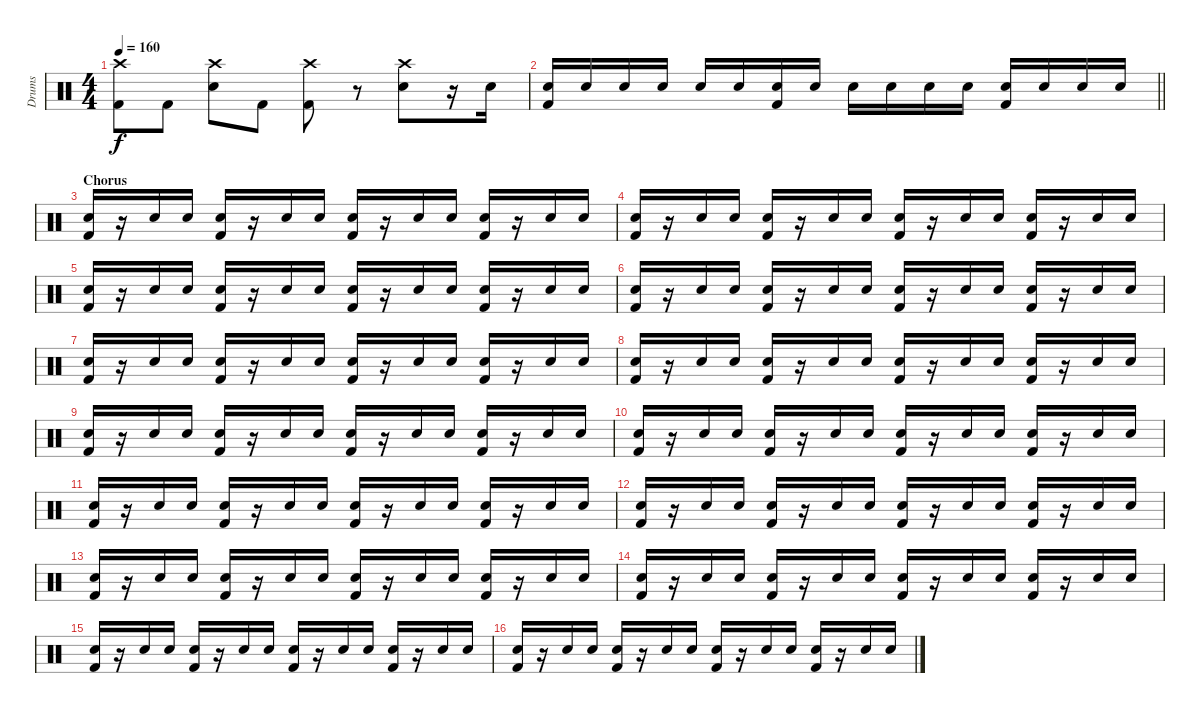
\track ("Drums" "Drums") {instrument percussion}
\staff {score}
\articulation defaults
\ts (4 4)
\tempo 160
\clef neutral
\ks c
("Crash high (hit)" "Kick (hit) 2").8{dy f} "Kick (hit) 2".8 ("Crash high (hit)" "Snare (hit) 2").8 "Kick (hit) 2".8 ("Crash high (hit)" "Kick (hit) 2").8 r.8 ("Crash high (hit)" "Snare (hit) 2").8 r.16 "Snare (hit) 2".16 |
\barLineRight lightlight
("Snare (hit) 2" "Kick (hit) 2").16 "Snare (hit) 2".16 "Snare (hit) 2".16 "Snare (hit) 2".16 "Snare (hit) 2".16 "Snare (hit) 2".16 ("Snare (hit) 2" "Kick (hit) 2").16 "Snare (hit) 2".16 "Snare (hit) 2".16 "Snare (hit) 2".16 "Snare (hit) 2".16 "Snare (hit) 2".16 ("Snare (hit) 2" "Kick (hit) 2").16 "Snare (hit) 2".16 "Snare (hit) 2".16 "Snare (hit) 2".16 |
\section ("" "Chorus")
("Snare (hit) 2" "Kick (hit) 2").16 r.16 "Snare (hit) 2".16 "Snare (hit) 2".16 ("Snare (hit) 2" "Kick (hit) 2").16 r.16 "Snare (hit) 2".16 "Snare (hit) 2".16 ("Snare (hit) 2" "Kick (hit) 2").16 r.16 "Snare (hit) 2".16 "Snare (hit) 2".16 ("Snare (hit) 2" "Kick (hit) 2").16 r.16 "Snare (hit) 2".16 "Snare (hit) 2".16 |
("Snare (hit) 2" "Kick (hit) 2").16 r.16 "Snare (hit) 2".16 "Snare (hit) 2".16 ("Snare (hit) 2" "Kick (hit) 2").16 r.16 "Snare (hit) 2".16 "Snare (hit) 2".16 ("Snare (hit) 2" "Kick (hit) 2").16 r.16 "Snare (hit) 2".16 "Snare (hit) 2".16 ("Snare (hit) 2" "Kick (hit) 2").16 r.16 "Snare (hit) 2".16 "Snare (hit) 2".16 |
("Snare (hit) 2" "Kick (hit) 2").16 r.16 "Snare (hit) 2".16 "Snare (hit) 2".16 ("Snare (hit) 2" "Kick (hit) 2").16 r.16 "Snare (hit) 2".16 "Snare (hit) 2".16 ("Snare (hit) 2" "Kick (hit) 2").16 r.16 "Snare (hit) 2".16 "Snare (hit) 2".16 ("Snare (hit) 2" "Kick (hit) 2").16 r.16 "Snare (hit) 2".16 "Snare (hit) 2".16 |
("Snare (hit) 2" "Kick (hit) 2").16 r.16 "Snare (hit) 2".16 "Snare (hit) 2".16 ("Snare (hit) 2" "Kick (hit) 2").16 r.16 "Snare (hit) 2".16 "Snare (hit) 2".16 ("Snare (hit) 2" "Kick (hit) 2").16 r.16 "Snare (hit) 2".16 "Snare (hit) 2".16 ("Snare (hit) 2" "Kick (hit) 2").16 r.16 "Snare (hit) 2".16 "Snare (hit) 2".16 |
("Snare (hit) 2" "Kick (hit) 2").16 r.16 "Snare (hit) 2".16 "Snare (hit) 2".16 ("Snare (hit) 2" "Kick (hit) 2").16 r.16 "Snare (hit) 2".16 "Snare (hit) 2".16 ("Snare (hit) 2" "Kick (hit) 2").16 r.16 "Snare (hit) 2".16 "Snare (hit) 2".16 ("Snare (hit) 2" "Kick (hit) 2").16 r.16 "Snare (hit) 2".16 "Snare (hit) 2".16 |
("Snare (hit) 2" "Kick (hit) 2").16 r.16 "Snare (hit) 2".16 "Snare (hit) 2".16 ("Snare (hit) 2" "Kick (hit) 2").16 r.16 "Snare (hit) 2".16 "Snare (hit) 2".16 ("Snare (hit) 2" "Kick (hit) 2").16 r.16 "Snare (hit) 2".16 "Snare (hit) 2".16 ("Snare (hit) 2" "Kick (hit) 2").16 r.16 "Snare (hit) 2".16 "Snare (hit) 2".16 |
("Snare (hit) 2" "Kick (hit) 2").16 r.16 "Snare (hit) 2".16 "Snare (hit) 2".16 ("Snare (hit) 2" "Kick (hit) 2").16 r.16 "Snare (hit) 2".16 "Snare (hit) 2".16 ("Snare (hit) 2" "Kick (hit) 2").16 r.16 "Snare (hit) 2".16 "Snare (hit) 2".16 ("Snare (hit) 2" "Kick (hit) 2").16 r.16 "Snare (hit) 2".16 "Snare (hit) 2".16 |
("Snare (hit) 2" "Kick (hit) 2").16 r.16 "Snare (hit) 2".16 "Snare (hit) 2".16 ("Snare (hit) 2" "Kick (hit) 2").16 r.16 "Snare (hit) 2".16 "Snare (hit) 2".16 ("Snare (hit) 2" "Kick (hit) 2").16 r.16 "Snare (hit) 2".16 "Snare (hit) 2".16 ("Snare (hit) 2" "Kick (hit) 2").16 r.16 "Snare (hit) 2".16 "Snare (hit) 2".16 |
("Snare (hit) 2" "Kick (hit) 2").16 r.16 "Snare (hit) 2".16 "Snare (hit) 2".16 ("Snare (hit) 2" "Kick (hit) 2").16 r.16 "Snare (hit) 2".16 "Snare (hit) 2".16 ("Snare (hit) 2" "Kick (hit) 2").16 r.16 "Snare (hit) 2".16 "Snare (hit) 2".16 ("Snare (hit) 2" "Kick (hit) 2").16 r.16 "Snare (hit) 2".16 "Snare (hit) 2".16 |
("Snare (hit) 2" "Kick (hit) 2").16 r.16 "Snare (hit) 2".16 "Snare (hit) 2".16 ("Snare (hit) 2" "Kick (hit) 2").16 r.16 "Snare (hit) 2".16 "Snare (hit) 2".16 ("Snare (hit) 2" "Kick (hit) 2").16 r.16 "Snare (hit) 2".16 "Snare (hit) 2".16 ("Snare (hit) 2" "Kick (hit) 2").16 r.16 "Snare (hit) 2".16 "Snare (hit) 2".16 |
("Snare (hit) 2" "Kick (hit) 2").16 r.16 "Snare (hit) 2".16 "Snare (hit) 2".16 ("Snare (hit) 2" "Kick (hit) 2").16 r.16 "Snare (hit) 2".16 "Snare (hit) 2".16 ("Snare (hit) 2" "Kick (hit) 2").16 r.16 "Snare (hit) 2".16 "Snare (hit) 2".16 ("Snare (hit) 2" "Kick (hit) 2").16 r.16 "Snare (hit) 2".16 "Snare (hit) 2".16 |
("Snare (hit) 2" "Kick (hit) 2").16 r.16 "Snare (hit) 2".16 "Snare (hit) 2".16 ("Snare (hit) 2" "Kick (hit) 2").16 r.16 "Snare (hit) 2".16 "Snare (hit) 2".16 ("Snare (hit) 2" "Kick (hit) 2").16 r.16 "Snare (hit) 2".16 "Snare (hit) 2".16 ("Snare (hit) 2" "Kick (hit) 2").16 r.16 "Snare (hit) 2".16 "Snare (hit) 2".16 |
("Snare (hit) 2" "Kick (hit) 2").16 r.16 "Snare (hit) 2".16 "Snare (hit) 2".16 ("Snare (hit) 2" "Kick (hit) 2").16 r.16 "Snare (hit) 2".16 "Snare (hit) 2".16 ("Snare (hit) 2" "Kick (hit) 2").16 r.16 "Snare (hit) 2".16 "Snare (hit) 2".16 ("Snare (hit) 2" "Kick (hit) 2").16 r.16 "Snare (hit) 2".16 "Snare (hit) 2".16 |
("Snare (hit) 2" "Kick (hit) 2").16 r.16 "Snare (hit) 2".16 "Snare (hit) 2".16 ("Snare (hit) 2" "Kick (hit) 2").16 r.16 "Snare (hit) 2".16 "Snare (hit) 2".16 ("Snare (hit) 2" "Kick (hit) 2").16 r.16 "Snare (hit) 2".16 "Snare (hit) 2".16 ("Snare (hit) 2" "Kick (hit) 2").16 r.16 "Snare (hit) 2".16 "Snare (hit) 2".16
